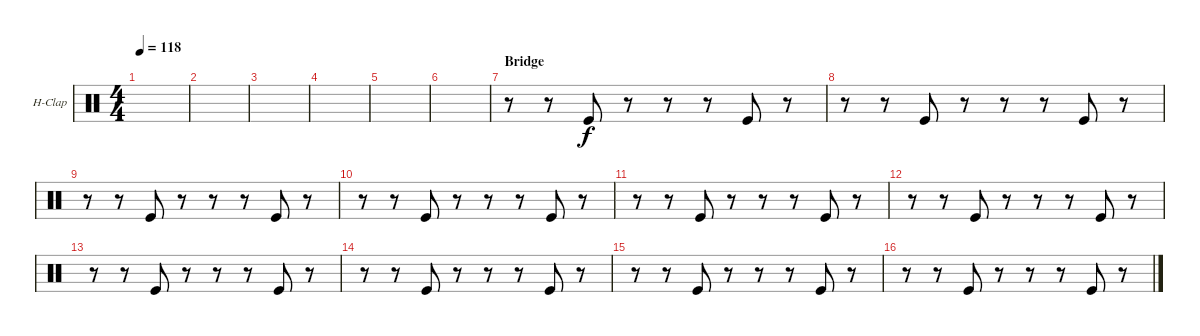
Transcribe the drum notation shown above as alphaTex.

\defaultSystemsLayout 4
\bracketExtendMode groupsimilarinstruments
\firstSystemTrackNameOrientation horizontal
\otherSystemsTrackNameOrientation horizontal
\track ("Hand Clap" "H-Clap") {instrument percussion}
\staff {score}
\articulation defaults
\ts (4 4)
\tempo 118
\clef neutral
\ks c
|
|
|
|
|
|
\section ("" "Bridge")
r.8 r.8 "Kick (hit)".8 r.8 r.8 r.8 "Kick (hit)".8 r.8 |
r.8 r.8 "Kick (hit)".8 r.8 r.8 r.8 "Kick (hit)".8 r.8 |
r.8 r.8 "Kick (hit)".8 r.8 r.8 r.8 "Kick (hit)".8 r.8 |
r.8 r.8 "Kick (hit)".8 r.8 r.8 r.8 "Kick (hit)".8 r.8 |
r.8 r.8 "Kick (hit)".8 r.8 r.8 r.8 "Kick (hit)".8 r.8 |
r.8 r.8 "Kick (hit)".8 r.8 r.8 r.8 "Kick (hit)".8 r.8 |
r.8 r.8 "Kick (hit)".8 r.8 r.8 r.8 "Kick (hit)".8 r.8 |
r.8 r.8 "Kick (hit)".8 r.8 r.8 r.8 "Kick (hit)".8 r.8 |
r.8 r.8 "Kick (hit)".8 r.8 r.8 r.8 "Kick (hit)".8 r.8 |
r.8 r.8 "Kick (hit)".8 r.8 r.8 r.8 "Kick (hit)".8 r.8
